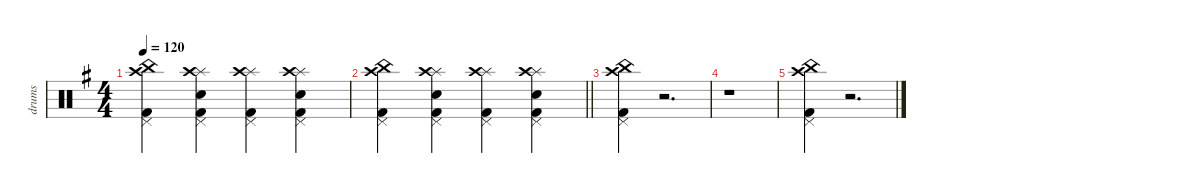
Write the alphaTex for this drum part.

\defaultSystemsLayout 4
\hideDynamics
\bracketExtendMode nobrackets
\otherSystemsTrackNameOrientation horizontal
\track ("drums" "drums") {instrument percussion}
\staff {score}
\articulation defaults
\ts (4 4)
\tempo 120
\clef neutral
\scale
1.07945
\ks eminor
("Kick (hit) 2"{acc forcenatural} "China (hit)"{acc forcenatural} "Crash high (hit)"{acc forcenatural} "Pedal Hi-Hat (hit)"{acc forcenatural}).4{dy mf beam Down} ("Kick (hit) 2"{acc forcenatural} "Pedal Hi-Hat (hit)"{acc forcenatural} "Snare (hit) 2"{acc forcenatural} "Splash (hit)"{acc forcenatural} "Crash high (hit)"{acc forcenatural}).4{beam Down} ("Kick (hit) 2"{acc forcenatural} "Pedal Hi-Hat (hit)"{acc forcenatural} "Splash (hit)"{acc forcenatural} "Crash high (hit)"{acc forcenatural}).4{beam Down} ("Kick (hit) 2"{acc forcenatural} "Pedal Hi-Hat (hit)"{acc forcenatural} "Snare (hit) 2"{acc forcenatural} "Splash (hit)"{acc forcenatural} "Crash high (hit)"{acc forcenatural}).4{beam Down} |
\scale
0.973518
\barLineRight lightlight
("Kick (hit) 2"{acc forcenatural} "China (hit)"{acc forcenatural} "Crash high (hit)"{acc forcenatural} "Pedal Hi-Hat (hit)"{acc forcenatural}).4{beam Down} ("Kick (hit) 2"{acc forcenatural} "Pedal Hi-Hat (hit)"{acc forcenatural} "Snare (hit) 2"{acc forcenatural} "Splash (hit)"{acc forcenatural} "Crash high (hit)"{acc forcenatural}).4{beam Down} ("Kick (hit) 2"{acc forcenatural} "Pedal Hi-Hat (hit)"{acc forcenatural} "Splash (hit)"{acc forcenatural} "Crash high (hit)"{acc forcenatural}).4{beam Down} ("Kick (hit) 2"{acc forcenatural} "Pedal Hi-Hat (hit)"{acc forcenatural} "Snare (hit) 2"{acc forcenatural} "Splash (hit)"{acc forcenatural} "Crash high (hit)"{acc forcenatural}).4{beam Down} |
\scale
0.973518 ("Kick (hit) 2"{acc forcenatural} "China (hit)"{acc forcenatural} "Crash high (hit)"{acc forcenatural} "Pedal Hi-Hat (hit)"{acc forcenatural}).4{beam Down} r.2{d beam Down} |
\scale
0.973518 r.1{beam Down} |
\scale
1.02648 ("Kick (hit) 2"{acc forcenatural} "China (hit)"{acc forcenatural} "Crash high (hit)"{acc forcenatural} "Pedal Hi-Hat (hit)"{acc forcenatural}).4{beam Down} r.2{d beam Down}
